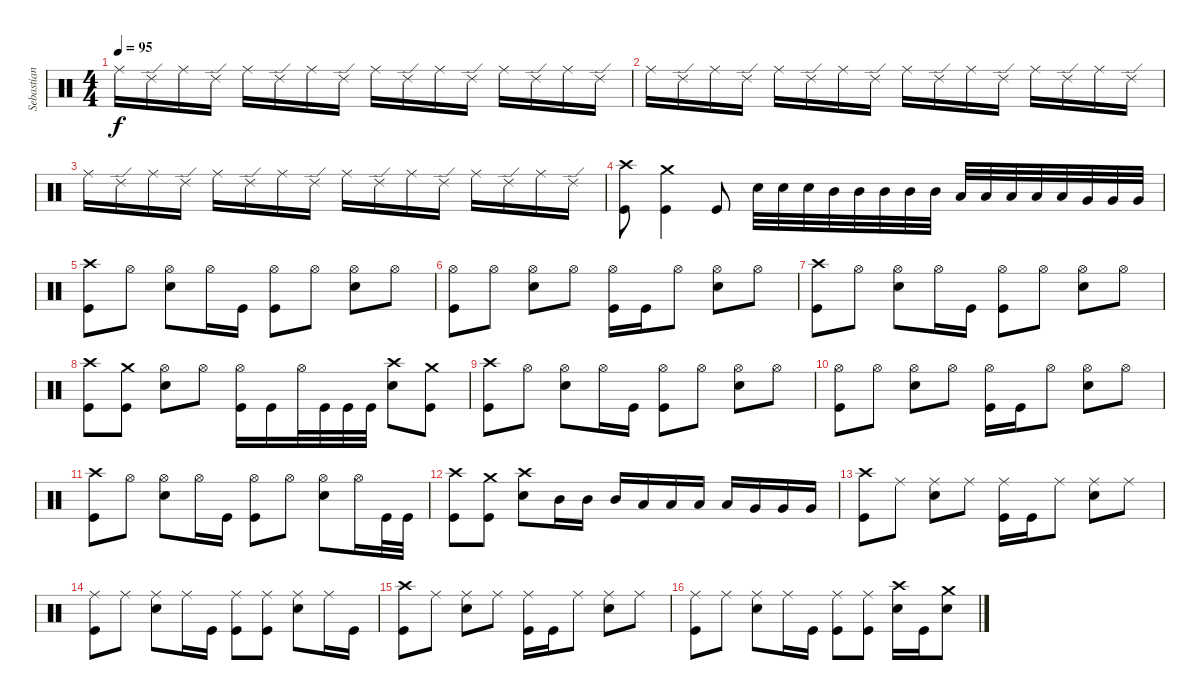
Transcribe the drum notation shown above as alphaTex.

\track ("Sebastian" "Sebastian") {instrument percussion}
\staff {score}
\articulation defaults
\ts (4 4)
\tempo 95
\clef neutral
\ks c "Ride (middle)".16{dy f} "Ride (edge) 2".16 "Ride (middle)".16 "Ride (edge) 2".16 "Ride (middle)".16 "Ride (edge) 2".16 "Ride (middle)".16 "Ride (edge) 2".16 "Ride (middle)".16 "Ride (edge) 2".16 "Ride (middle)".16 "Ride (edge) 2".16 "Ride (middle)".16 "Ride (edge) 2".16 "Ride (middle)".16 "Ride (edge) 2".16
|
"Ride (middle)".16 "Ride (edge) 2".16 "Ride (middle)".16 "Ride (edge) 2".16 "Ride (middle)".16 "Ride (edge) 2".16 "Ride (middle)".16 "Ride (edge) 2".16 "Ride (middle)".16 "Ride (edge) 2".16 "Ride (middle)".16 "Ride (edge) 2".16 "Ride (middle)".16 "Ride (edge) 2".16 "Ride (middle)".16 "Ride (edge) 2".16 |
"Ride (middle)".16 "Ride (edge) 2".16 "Ride (middle)".16 "Ride (edge) 2".16 "Ride (middle)".16 "Ride (edge) 2".16 "Ride (middle)".16 "Ride (edge) 2".16 "Ride (middle)".16 "Ride (edge) 2".16 "Ride (middle)".16 "Ride (edge) 2".16 "Ride (middle)".16 "Ride (edge) 2".16 "Ride (middle)".16 "Ride (edge) 2".16 |
("Kick (hit)" "Crash high (hit)").8 ("Kick (hit)" "Crash medium (hit)").4 "Kick (hit)".8 "Snare (hit) 2".32 "Snare (hit) 2".32 "Snare (hit) 2".32 "Mid Tom (hit)".32 "Mid Tom (hit)".32 "Mid Tom (hit)".32 "Mid Tom (hit)".32 "Mid Tom (hit)".32 "Low Tom (hit)".32 "Low Tom (hit)".32 "Low Tom (hit)".32 "Low Tom (hit)".32 "Low Tom (hit)".32 "Very Low Tom (hit)".32 "Very Low Tom (hit)".32 "Very Low Tom (hit)".32 |
("Kick (hit)" "Crash high (hit)").8 "Hi-Hat (open)".8 ("Snare (hit) 2" "Hi-Hat (open)").8 "Hi-Hat (open)".16 "Kick (hit)".16 ("Kick (hit)" "Hi-Hat (open)").8 "Hi-Hat (open)".8 ("Snare (hit) 2" "Hi-Hat (open)").8 "Hi-Hat (open)".8 |
("Kick (hit)" "Hi-Hat (open)").8 "Hi-Hat (open)".8 ("Snare (hit) 2" "Hi-Hat (open)").8 "Hi-Hat (open)".8 ("Kick (hit)" "Hi-Hat (open)").16 "Kick (hit)".16 "Hi-Hat (open)".8 ("Snare (hit) 2" "Hi-Hat (open)").8 "Hi-Hat (open)".8 |
("Kick (hit)" "Crash high (hit)").8 "Hi-Hat (open)".8 ("Snare (hit) 2" "Hi-Hat (open)").8 "Hi-Hat (open)".16 "Kick (hit)".16 ("Kick (hit)" "Hi-Hat (open)").8 "Hi-Hat (open)".8 ("Snare (hit) 2" "Hi-Hat (open)").8 "Hi-Hat (open)".8 |
("Kick (hit)" "Crash high (hit)").8 ("Kick (hit)" "Crash medium (hit)").8 ("Snare (hit) 2" "Hi-Hat (open)").8 "Hi-Hat (open)".8 ("Kick (hit)" "Hi-Hat (open)").16 "Kick (hit)".16 "Hi-Hat (open)".32 "Kick (hit)".32 "Kick (hit)".32 "Kick (hit)".32 ("Snare (hit) 2" "Crash high (hit)").8 ("Kick (hit)" "Crash medium (hit)").8 |
("Kick (hit)" "Crash high (hit)").8 "Hi-Hat (open)".8 ("Snare (hit) 2" "Hi-Hat (open)").8 "Hi-Hat (open)".16 "Kick (hit)".16 ("Kick (hit)" "Hi-Hat (open)").8 "Hi-Hat (open)".8 ("Snare (hit) 2" "Hi-Hat (open)").8 "Hi-Hat (open)".8 |
("Kick (hit)" "Hi-Hat (open)").8 "Hi-Hat (open)".8 ("Snare (hit) 2" "Hi-Hat (open)").8 "Hi-Hat (open)".8 ("Kick (hit)" "Hi-Hat (open)").16 "Kick (hit)".16 "Hi-Hat (open)".8 ("Snare (hit) 2" "Hi-Hat (open)").8 "Hi-Hat (open)".8 |
("Kick (hit)" "Crash high (hit)").8 "Hi-Hat (open)".8 ("Snare (hit) 2" "Hi-Hat (open)").8 "Hi-Hat (open)".16 "Kick (hit)".16 ("Kick (hit)" "Hi-Hat (open)").8 "Hi-Hat (open)".8 ("Snare (hit) 2" "Hi-Hat (open)").8 "Hi-Hat (open)".16 "Kick (hit)".32 "Kick (hit)".32 |
("Kick (hit)" "Crash high (hit)").8 ("Kick (hit)" "Crash medium (hit)").8 ("Snare (hit) 2" "Crash high (hit)").8 "Mid Tom (hit)".16 "Mid Tom (hit)".16 "Mid Tom (hit)".16 "Low Tom (hit)".16 "Low Tom (hit)".16 "Low Tom (hit)".16 "Low Tom (hit)".16 "Very Low Tom (hit)".16 "Very Low Tom (hit)".16 "Very Low Tom (hit)".16 |
("Kick (hit)" "Crash high (hit)").8 "Ride (middle)".8 ("Snare (hit) 2" "Ride (middle)").8 "Ride (middle)".8 ("Kick (hit)" "Ride (middle)").16 "Kick (hit)".16 "Ride (middle)".8 ("Snare (hit) 2" "Ride (middle)").8 "Ride (middle)".8 |
("Kick (hit)" "Ride (middle)").8 "Ride (middle)".8 ("Snare (hit) 2" "Ride (middle)").8 "Ride (middle)".16 "Kick (hit)".16 ("Kick (hit)" "Ride (middle)").8 ("Kick (hit)" "Ride (middle)").8 ("Snare (hit) 2" "Ride (middle)").8 "Ride (middle)".16 "Kick (hit)".16 |
("Kick (hit)" "Crash high (hit)").8 "Ride (middle)".8 ("Snare (hit) 2" "Ride (middle)").8 "Ride (middle)".8 ("Kick (hit)" "Ride (middle)").16 "Kick (hit)".16 "Ride (middle)".8 ("Snare (hit) 2" "Ride (middle)").8 "Ride (middle)".8 |
("Kick (hit)" "Ride (middle)").8 "Ride (middle)".8 ("Snare (hit) 2" "Ride (middle)").8 "Ride (middle)".16 "Kick (hit)".16 ("Kick (hit)" "Ride (middle)").8 ("Kick (hit)" "Ride (middle)").8 ("Snare (hit) 2" "Crash high (hit)").16 "Kick (hit)".16 ("Snare (hit) 2" "Crash medium (hit)").8
